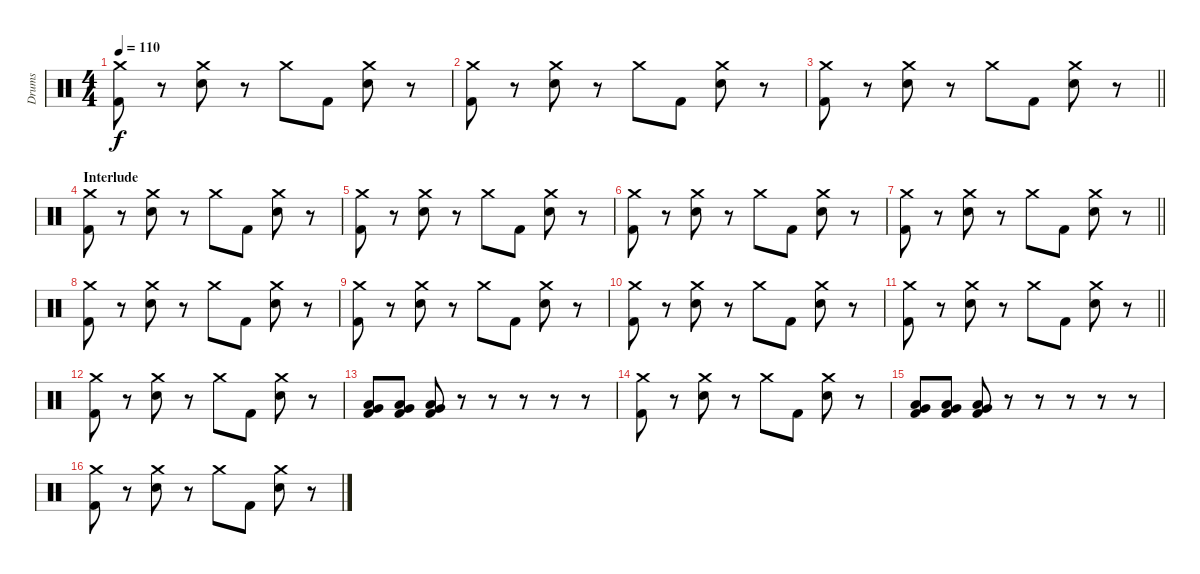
\track ("Drums" "Drums") {instrument percussion}
\staff {score}
\articulation defaults
\ts (4 4)
\tempo 110
\clef neutral
\ks c
("Crash medium (hit)" "Kick (hit) 2").8{dy f} r.8 ("Crash medium (hit)" "Electric Snare (hit)").8 r.8 "Crash medium (hit)".8 "Kick (hit) 2".8 ("Crash medium (hit)" "Electric Snare (hit)").8 r.8 |
("Crash medium (hit)" "Kick (hit) 2").8 r.8 ("Crash medium (hit)" "Electric Snare (hit)").8 r.8 "Crash medium (hit)".8 "Kick (hit) 2".8 ("Crash medium (hit)" "Electric Snare (hit)").8 r.8 |
\barLineRight lightlight
("Crash medium (hit)" "Kick (hit) 2").8 r.8 ("Crash medium (hit)" "Electric Snare (hit)").8 r.8 "Crash medium (hit)".8 "Kick (hit) 2".8 ("Crash medium (hit)" "Electric Snare (hit)").8 r.8 |
\section ("" "Interlude")
("Crash medium (hit)" "Kick (hit) 2").8 r.8 ("Crash medium (hit)" "Electric Snare (hit)").8 r.8 "Crash medium (hit)".8 "Kick (hit) 2".8 ("Crash medium (hit)" "Electric Snare (hit)").8 r.8 |
("Crash medium (hit)" "Kick (hit) 2").8 r.8 ("Crash medium (hit)" "Electric Snare (hit)").8 r.8 "Crash medium (hit)".8 "Kick (hit) 2".8 ("Crash medium (hit)" "Electric Snare (hit)").8 r.8 |
("Crash medium (hit)" "Kick (hit) 2").8 r.8 ("Crash medium (hit)" "Electric Snare (hit)").8 r.8 "Crash medium (hit)".8 "Kick (hit) 2".8 ("Crash medium (hit)" "Electric Snare (hit)").8 r.8 |
\barLineRight lightlight
("Crash medium (hit)" "Kick (hit) 2").8 r.8 ("Crash medium (hit)" "Electric Snare (hit)").8 r.8 "Crash medium (hit)".8 "Kick (hit) 2".8 ("Crash medium (hit)" "Electric Snare (hit)").8 r.8 |
("Crash medium (hit)" "Kick (hit) 2").8 r.8 ("Crash medium (hit)" "Electric Snare (hit)").8 r.8 "Crash medium (hit)".8 "Kick (hit) 2".8 ("Crash medium (hit)" "Electric Snare (hit)").8 r.8 |
("Crash medium (hit)" "Kick (hit) 2").8 r.8 ("Crash medium (hit)" "Electric Snare (hit)").8 r.8 "Crash medium (hit)".8 "Kick (hit) 2".8 ("Crash medium (hit)" "Electric Snare (hit)").8 r.8 |
("Crash medium (hit)" "Kick (hit) 2").8 r.8 ("Crash medium (hit)" "Electric Snare (hit)").8 r.8 "Crash medium (hit)".8 "Kick (hit) 2".8 ("Crash medium (hit)" "Electric Snare (hit)").8 r.8 |
\barLineRight lightlight
("Crash medium (hit)" "Kick (hit) 2").8 r.8 ("Crash medium (hit)" "Electric Snare (hit)").8 r.8 "Crash medium (hit)".8 "Kick (hit) 2".8 ("Crash medium (hit)" "Electric Snare (hit)").8 r.8 |
("Crash medium (hit)" "Kick (hit) 2").8 r.8 ("Crash medium (hit)" "Electric Snare (hit)").8 r.8 "Crash medium (hit)".8 "Kick (hit) 2".8 ("Crash medium (hit)" "Electric Snare (hit)").8 r.8 |
("Very Low Tom (hit)" "Low Floor Tom (hit)" "Kick (hit) 2").8 ("Very Low Tom (hit)" "Low Floor Tom (hit)" "Kick (hit) 2").8 ("Very Low Tom (hit)" "Low Floor Tom (hit)" "Kick (hit) 2").8 r.8 r.8 r.8 r.8 r.8 |
("Crash medium (hit)" "Kick (hit) 2").8 r.8 ("Crash medium (hit)" "Electric Snare (hit)").8 r.8 "Crash medium (hit)".8 "Kick (hit) 2".8 ("Crash medium (hit)" "Electric Snare (hit)").8 r.8 |
("Very Low Tom (hit)" "Low Floor Tom (hit)" "Kick (hit) 2").8 ("Very Low Tom (hit)" "Low Floor Tom (hit)" "Kick (hit) 2").8 ("Very Low Tom (hit)" "Low Floor Tom (hit)" "Kick (hit) 2").8 r.8 r.8 r.8 r.8 r.8 |
("Crash medium (hit)" "Kick (hit) 2").8 r.8 ("Crash medium (hit)" "Electric Snare (hit)").8 r.8 "Crash medium (hit)".8 "Kick (hit) 2".8 ("Crash medium (hit)" "Electric Snare (hit)").8 r.8
